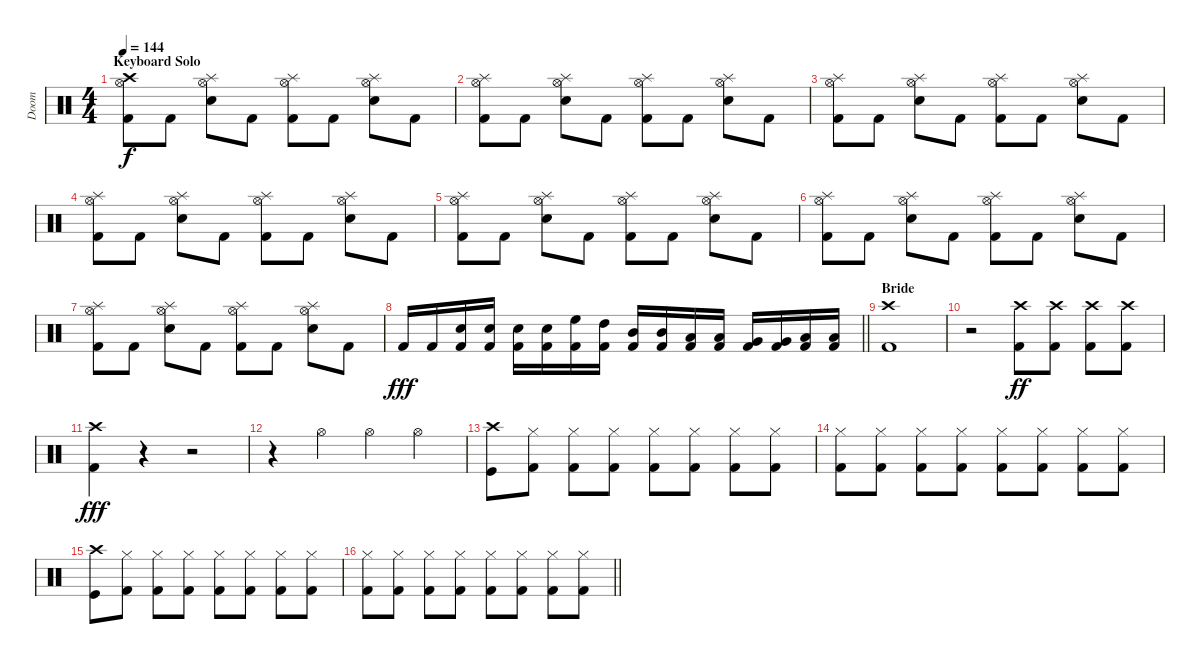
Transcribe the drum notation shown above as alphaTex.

\track ("Doom" "Doom") {instrument percussion}
\staff {score}
\articulation defaults
\ts (4 4)
\section ("" "Keyboard Solo")
\tempo 144
\clef neutral
\ks c
("Kick (hit) 2" "Hi-Hat (open)" "Crash high (hit)").8{dy f} "Kick (hit) 2".8 ("Snare (hit) 2" "Hi-Hat (open)" "Splash (hit)").8 "Kick (hit) 2".8 ("Kick (hit) 2" "Hi-Hat (open)" "Splash (hit)").8 "Kick (hit) 2".8 ("Snare (hit) 2" "Hi-Hat (open)" "Splash (hit)").8 "Kick (hit) 2".8 |
("Kick (hit) 2" "Hi-Hat (open)" "Splash (hit)").8 "Kick (hit) 2".8 ("Snare (hit) 2" "Hi-Hat (open)" "Splash (hit)").8 "Kick (hit) 2".8 ("Kick (hit) 2" "Hi-Hat (open)" "Splash (hit)").8 "Kick (hit) 2".8 ("Snare (hit) 2" "Hi-Hat (open)" "Splash (hit)").8 "Kick (hit) 2".8 |
("Kick (hit) 2" "Hi-Hat (open)" "Splash (hit)").8 "Kick (hit) 2".8 ("Snare (hit) 2" "Hi-Hat (open)" "Splash (hit)").8 "Kick (hit) 2".8 ("Kick (hit) 2" "Hi-Hat (open)" "Splash (hit)").8 "Kick (hit) 2".8 ("Snare (hit) 2" "Hi-Hat (open)" "Splash (hit)").8 "Kick (hit) 2".8 |
("Kick (hit) 2" "Hi-Hat (open)" "Splash (hit)").8 "Kick (hit) 2".8 ("Snare (hit) 2" "Hi-Hat (open)" "Splash (hit)").8 "Kick (hit) 2".8 ("Kick (hit) 2" "Hi-Hat (open)" "Splash (hit)").8 "Kick (hit) 2".8 ("Snare (hit) 2" "Hi-Hat (open)" "Splash (hit)").8 "Kick (hit) 2".8 |
("Kick (hit) 2" "Hi-Hat (open)" "Splash (hit)").8 "Kick (hit) 2".8 ("Snare (hit) 2" "Hi-Hat (open)" "Splash (hit)").8 "Kick (hit) 2".8 ("Kick (hit) 2" "Hi-Hat (open)" "Splash (hit)").8 "Kick (hit) 2".8 ("Snare (hit) 2" "Hi-Hat (open)" "Splash (hit)").8 "Kick (hit) 2".8 |
("Kick (hit) 2" "Hi-Hat (open)" "Splash (hit)").8 "Kick (hit) 2".8 ("Snare (hit) 2" "Hi-Hat (open)" "Splash (hit)").8 "Kick (hit) 2".8 ("Kick (hit) 2" "Hi-Hat (open)" "Splash (hit)").8 "Kick (hit) 2".8 ("Snare (hit) 2" "Hi-Hat (open)" "Splash (hit)").8 "Kick (hit) 2".8 |
("Kick (hit) 2" "Hi-Hat (open)" "Splash (hit)").8 "Kick (hit) 2".8 ("Snare (hit) 2" "Hi-Hat (open)" "Splash (hit)").8 "Kick (hit) 2".8 ("Kick (hit) 2" "Hi-Hat (open)" "Splash (hit)").8 "Kick (hit) 2".8 ("Snare (hit) 2" "Hi-Hat (open)" "Splash (hit)").8 "Kick (hit) 2".8 |
\barLineRight lightlight "Kick (hit) 2".16{dy fff} "Kick (hit) 2".16
("Kick (hit) 2" "Snare (hit) 2").16 ("Kick (hit) 2" "Snare (hit) 2").16 ("Kick (hit) 2" "Snare (hit) 2").16 ("Kick (hit) 2" "Snare (hit) 2").16 ("Kick (hit) 2" "High Floor Tom (hit)").16 ("Kick (hit) 2" "High Tom (hit)").16 ("Kick (hit) 2" "Mid Tom (hit)").16 ("Kick (hit) 2" "Mid Tom (hit)").16 ("Kick (hit) 2" "Low Tom (hit)").16 ("Kick (hit) 2" "Low Tom (hit)").16 ("Kick (hit) 2" "Very Low Tom (hit)").16 ("Very Low Tom (hit)" "Kick (hit) 2").16 ("Kick (hit) 2" "Low Floor Tom (hit)").16 ("Kick (hit) 2" "Low Floor Tom (hit)").16 |
\section ("" "Bride")
("Kick (hit) 2" "Crash high (hit)").1 |
r.2 ("Kick (hit) 2" "Crash high (hit)").8{dy ff} ("Kick (hit) 2" "Crash high (hit)").8 ("Kick (hit) 2" "Crash high (hit)").8 ("Kick (hit) 2" "Crash high (hit)").8 |
("Kick (hit) 2" "Crash high (hit)").4{dy fff} r.4 r.2 |
r.4 "Hi-Hat (open)".4 "Hi-Hat (open)".4 "Hi-Hat (open)".4 |
("Kick (hit)" "Crash high (hit)").8 ("Hi-Hat (closed)" "Kick (hit) 2").8 ("Hi-Hat (closed)" "Kick (hit) 2").8 ("Hi-Hat (closed)" "Kick (hit) 2").8 ("Hi-Hat (closed)" "Kick (hit) 2").8 ("Hi-Hat (closed)" "Kick (hit) 2").8 ("Hi-Hat (closed)" "Kick (hit) 2").8 ("Hi-Hat (closed)" "Kick (hit) 2").8 |
("Hi-Hat (closed)" "Kick (hit) 2").8 ("Hi-Hat (closed)" "Kick (hit) 2").8 ("Hi-Hat (closed)" "Kick (hit) 2").8 ("Hi-Hat (closed)" "Kick (hit) 2").8 ("Hi-Hat (closed)" "Kick (hit) 2").8 ("Hi-Hat (closed)" "Kick (hit) 2").8 ("Hi-Hat (closed)" "Kick (hit) 2").8 ("Hi-Hat (closed)" "Kick (hit) 2").8 |
("Kick (hit)" "Crash high (hit)").8 ("Hi-Hat (closed)" "Kick (hit) 2").8 ("Hi-Hat (closed)" "Kick (hit) 2").8 ("Hi-Hat (closed)" "Kick (hit) 2").8 ("Hi-Hat (closed)" "Kick (hit) 2").8 ("Hi-Hat (closed)" "Kick (hit) 2").8 ("Hi-Hat (closed)" "Kick (hit) 2").8 ("Hi-Hat (closed)" "Kick (hit) 2").8 |
\barLineRight lightlight
("Hi-Hat (closed)" "Kick (hit) 2").8 ("Hi-Hat (closed)" "Kick (hit) 2").8 ("Hi-Hat (closed)" "Kick (hit) 2").8 ("Hi-Hat (closed)" "Kick (hit) 2").8 ("Hi-Hat (closed)" "Kick (hit) 2").8 ("Hi-Hat (closed)" "Kick (hit) 2").8 ("Hi-Hat (closed)" "Kick (hit) 2").8 ("Hi-Hat (closed)" "Kick (hit) 2").8
